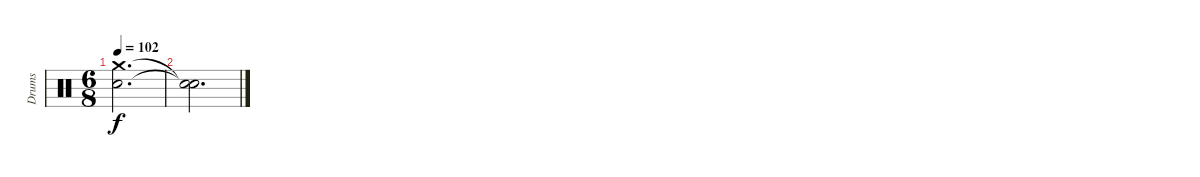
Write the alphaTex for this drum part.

\track ("Drums" "Drums") {instrument percussion}
\staff {score}
\articulation defaults
\ts (6 8)
\tempo 102
\clef neutral
\ks aminor
("Crash medium (hit)" "Snare (hit) 2").2{d dy f} |
("Snare (hit)"{t} "Snare (hit)"{t}).2{d}
